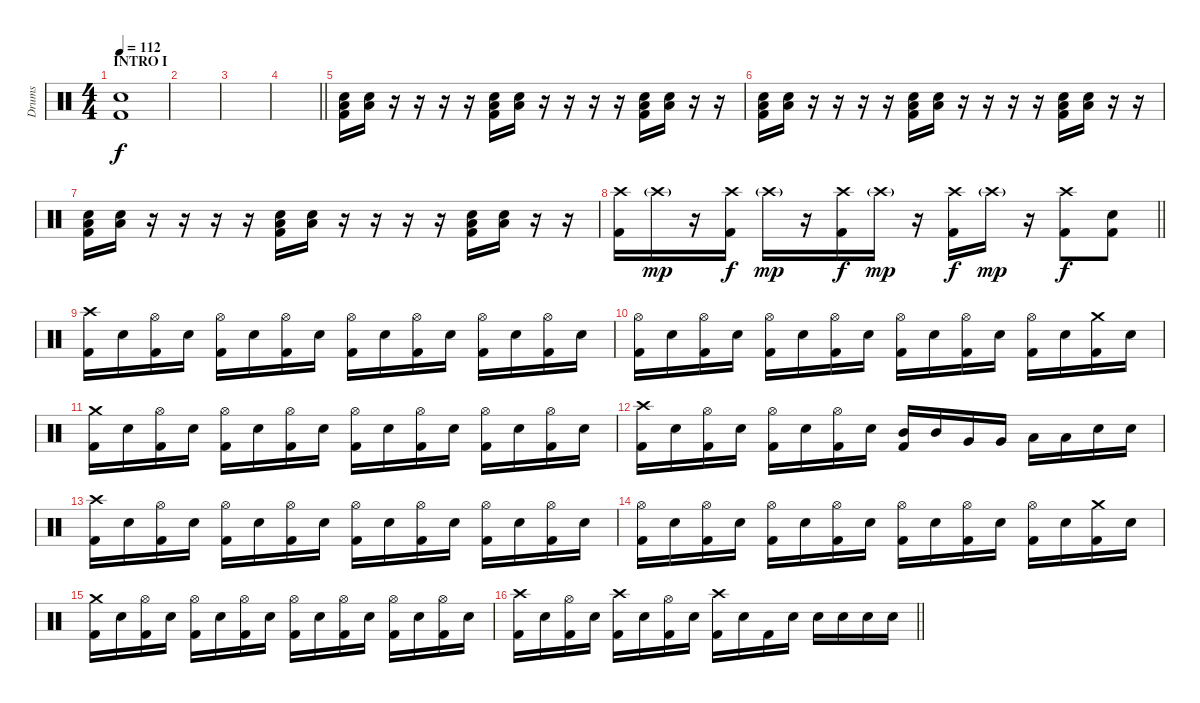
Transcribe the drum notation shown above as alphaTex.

\track ("Drums" "Drums") {instrument percussion}
\staff
\articulation defaults
\ts (4 4)
\section ("" "INTRO I")
\tempo 112
\clef neutral
\ks c
("Snare (hit) 2" "Kick (hit) 2").1{dy f} |
|
|
\barLineRight lightlight
|
("Low Floor Tom (hit)" "Snare (hit) 2" "Kick (hit) 2").16 ("Low Floor Tom (hit)" "Snare (hit) 2").16 r.16 r.16 r.16 r.16 ("Low Floor Tom (hit)" "Snare (hit) 2" "Kick (hit) 2").16 ("Low Floor Tom (hit)" "Snare (hit) 2").16 r.16 r.16 r.16 r.16 ("Low Floor Tom (hit)" "Snare (hit) 2" "Kick (hit) 2").16 ("Low Floor Tom (hit)" "Snare (hit) 2").16 r.16 r.16 |
("Low Floor Tom (hit)" "Snare (hit) 2" "Kick (hit) 2").16 ("Low Floor Tom (hit)" "Snare (hit) 2").16 r.16 r.16 r.16 r.16 ("Low Floor Tom (hit)" "Snare (hit) 2" "Kick (hit) 2").16 ("Low Floor Tom (hit)" "Snare (hit) 2").16 r.16 r.16 r.16 r.16 ("Low Floor Tom (hit)" "Snare (hit) 2" "Kick (hit) 2").16 ("Low Floor Tom (hit)" "Snare (hit) 2").16 r.16 r.16 |
("Low Floor Tom (hit)" "Snare (hit) 2" "Kick (hit) 2").16 ("Low Floor Tom (hit)" "Snare (hit) 2").16 r.16 r.16 r.16 r.16 ("Low Floor Tom (hit)" "Snare (hit) 2" "Kick (hit) 2").16 ("Low Floor Tom (hit)" "Snare (hit) 2").16 r.16 r.16 r.16 r.16 ("Low Floor Tom (hit)" "Snare (hit) 2" "Kick (hit) 2").16 ("Low Floor Tom (hit)" "Snare (hit) 2").16 r.16 r.16 |
\barLineRight lightlight
("Crash high (hit)" "Kick (hit) 2").16 "Crash high (hit)"{g}.16{dy mp} r.16 ("Crash high (hit)" "Kick (hit) 2").16{dy f} "Crash high (hit)"{g}.16{dy mp} r.16 ("Crash high (hit)" "Kick (hit) 2").16{dy f} "Crash high (hit)"{g}.16{dy mp} r.16 ("Crash high (hit)" "Kick (hit) 2").16{dy f} "Crash high (hit)"{g}.16{dy mp} r.16 ("Crash high (hit)" "Kick (hit) 2").8{dy f} ("Snare (hit) 2" "Kick (hit) 2").8 |
\section ("" "")
("Crash high (hit)" "Kick (hit) 2").16 "Snare (hit) 2".16 ("Hi-Hat (open)" "Kick (hit) 2").16 "Snare (hit) 2".16 ("Hi-Hat (open)" "Kick (hit) 2").16 "Snare (hit) 2".16 ("Hi-Hat (open)" "Kick (hit) 2").16 "Snare (hit) 2".16 ("Hi-Hat (open)" "Kick (hit) 2").16 "Snare (hit) 2".16 ("Hi-Hat (open)" "Kick (hit) 2").16 "Snare (hit) 2".16 ("Hi-Hat (open)" "Kick (hit) 2").16 "Snare (hit) 2".16 ("Hi-Hat (open)" "Kick (hit) 2").16 "Snare (hit) 2".16 |
("Hi-Hat (open)" "Kick (hit) 2").16 "Snare (hit) 2".16 ("Hi-Hat (open)" "Kick (hit) 2").16 "Snare (hit) 2".16 ("Hi-Hat (open)" "Kick (hit) 2").16 "Snare (hit) 2".16 ("Hi-Hat (open)" "Kick (hit) 2").16 "Snare (hit) 2".16 ("Hi-Hat (open)" "Kick (hit) 2").16 "Snare (hit) 2".16 ("Hi-Hat (open)" "Kick (hit) 2").16 "Snare (hit) 2".16 ("Hi-Hat (open)" "Kick (hit) 2").16 "Snare (hit) 2".16 ("Crash medium (hit)" "Kick (hit) 2").16 "Snare (hit) 2".16 |
("Crash medium (hit)" "Kick (hit) 2").16 "Snare (hit) 2".16 ("Hi-Hat (open)" "Kick (hit) 2").16 "Snare (hit) 2".16 ("Hi-Hat (open)" "Kick (hit) 2").16 "Snare (hit) 2".16 ("Hi-Hat (open)" "Kick (hit) 2").16 "Snare (hit) 2".16 ("Hi-Hat (open)" "Kick (hit) 2").16 "Snare (hit) 2".16 ("Hi-Hat (open)" "Kick (hit) 2").16 "Snare (hit) 2".16 ("Hi-Hat (open)" "Kick (hit) 2").16 "Snare (hit) 2".16 ("Hi-Hat (open)" "Kick (hit) 2").16 "Snare (hit) 2".16 |
("Crash high (hit)" "Kick (hit) 2").16 "Snare (hit) 2".16 ("Hi-Hat (open)" "Kick (hit) 2").16 "Snare (hit) 2".16 ("Hi-Hat (open)" "Kick (hit) 2").16 "Snare (hit) 2".16 ("Hi-Hat (open)" "Kick (hit) 2").16 "Snare (hit) 2".16 ("Mid Tom (hit)" "Kick (hit) 2").16 "Mid Tom (hit)".16 "Very Low Tom (hit)".16 "Very Low Tom (hit)".16 "Low Tom (hit)".16 "Low Tom (hit)".16 "Snare (hit) 2".16 "Snare (hit) 2".16 |
("Crash high (hit)" "Kick (hit) 2").16 "Snare (hit) 2".16 ("Hi-Hat (open)" "Kick (hit) 2").16 "Snare (hit) 2".16 ("Hi-Hat (open)" "Kick (hit) 2").16 "Snare (hit) 2".16 ("Hi-Hat (open)" "Kick (hit) 2").16 "Snare (hit) 2".16 ("Hi-Hat (open)" "Kick (hit) 2").16 "Snare (hit) 2".16 ("Hi-Hat (open)" "Kick (hit) 2").16 "Snare (hit) 2".16 ("Hi-Hat (open)" "Kick (hit) 2").16 "Snare (hit) 2".16 ("Hi-Hat (open)" "Kick (hit) 2").16 "Snare (hit) 2".16 |
("Hi-Hat (open)" "Kick (hit) 2").16 "Snare (hit) 2".16 ("Hi-Hat (open)" "Kick (hit) 2").16 "Snare (hit) 2".16 ("Hi-Hat (open)" "Kick (hit) 2").16 "Snare (hit) 2".16 ("Hi-Hat (open)" "Kick (hit) 2").16 "Snare (hit) 2".16 ("Hi-Hat (open)" "Kick (hit) 2").16 "Snare (hit) 2".16 ("Hi-Hat (open)" "Kick (hit) 2").16 "Snare (hit) 2".16 ("Hi-Hat (open)" "Kick (hit) 2").16 "Snare (hit) 2".16 ("Crash medium (hit)" "Kick (hit) 2").16 "Snare (hit) 2".16 |
("Crash medium (hit)" "Kick (hit) 2").16 "Snare (hit) 2".16 ("Hi-Hat (open)" "Kick (hit) 2").16 "Snare (hit) 2".16 ("Hi-Hat (open)" "Kick (hit) 2").16 "Snare (hit) 2".16 ("Hi-Hat (open)" "Kick (hit) 2").16 "Snare (hit) 2".16 ("Hi-Hat (open)" "Kick (hit) 2").16 "Snare (hit) 2".16 ("Hi-Hat (open)" "Kick (hit) 2").16 "Snare (hit) 2".16 ("Hi-Hat (open)" "Kick (hit) 2").16 "Snare (hit) 2".16 ("Hi-Hat (open)" "Kick (hit) 2").16 "Snare (hit) 2".16 |
\barLineRight lightlight
("Crash high (hit)" "Kick (hit) 2").16 "Snare (hit) 2".16 ("Hi-Hat (open)" "Kick (hit) 2").16 "Snare (hit) 2".16 ("Crash high (hit)" "Kick (hit) 2").16 "Snare (hit) 2".16 ("Hi-Hat (open)" "Kick (hit) 2").16 "Snare (hit) 2".16 ("Crash high (hit)" "Kick (hit) 2").16 "Snare (hit) 2".16 "Kick (hit) 2".16 "Snare (hit) 2".16 "Snare (hit) 2".16 "Snare (hit) 2".16 "Snare (hit) 2".16 "Snare (hit) 2".16
